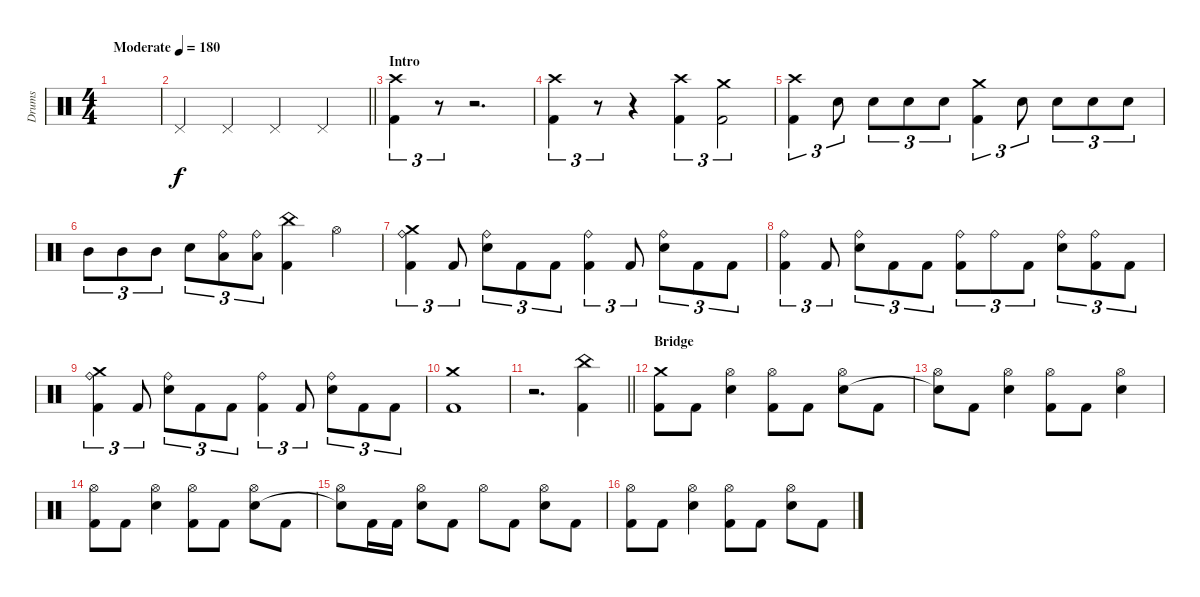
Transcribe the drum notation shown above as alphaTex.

\track ("Drums" "Drums") {instrument percussion}
\staff {score}
\articulation defaults
\ts (4 4)
\tempo (180 "Moderate")
\clef neutral
\ks c
|
\barLineRight lightlight "Pedal Hi-Hat (hit)".4 "Pedal Hi-Hat (hit)".4 "Pedal Hi-Hat (hit)".4 "Pedal Hi-Hat (hit)".4
|
\section ("" "Intro")
("Crash high (hit)" "Kick (hit) 2").4{tu (3 2)} r.8{tu (3 2)} r.2{d} |
("Crash high (hit)" "Kick (hit) 2").4{tu (3 2)} r.8{tu (3 2)} r.4 ("Crash high (hit)" "Kick (hit) 2").4{tu (3 2)} ("Crash medium (hit)" "Kick (hit) 2").2{tu (3 2)} |
("Crash high (hit)" "Kick (hit) 2").4{tu (3 2)} "Snare (hit) 2".8{tu (3 2)} "Snare (hit) 2".8{tu (3 2)} "Snare (hit) 2".8{tu (3 2)} "Snare (hit) 2".8{tu (3 2)} ("Crash medium (hit)" "Kick (hit) 2").4{tu (3 2)} "Snare (hit) 2".8{tu (3 2)} "Snare (hit) 2".8{tu (3 2)} "Snare (hit) 2".8{tu (3 2)} "Snare (hit) 2".8{tu (3 2)} |
"Mid Tom (hit)".8{tu (3 2)} "Mid Tom (hit)".8{tu (3 2)} "Mid Tom (hit)".8{tu (3 2)} "Snare (hit) 2".8{tu (3 2)} ("Ride (bell)" "Low Tom (hit)").8{tu (3 2)} ("Ride (bell)" "Low Tom (hit)").8{tu (3 2)} ("China (hit)" "Kick (hit) 2").4 "Hi-Hat (open)".4 |
("Ride (bell)" "Crash medium (hit)" "Kick (hit) 2").4{tu (3 2)} "Kick (hit) 2".8{tu (3 2)} ("Ride (bell)" "Snare (hit) 2").8{tu (3 2)} "Kick (hit) 2".8{tu (3 2)} "Kick (hit) 2".8{tu (3 2)} ("Ride (bell)" "Kick (hit) 2").4{tu (3 2)} "Kick (hit) 2".8{tu (3 2)} ("Ride (bell)" "Snare (hit) 2").8{tu (3 2)} "Kick (hit) 2".8{tu (3 2)} "Kick (hit) 2".8{tu (3 2)} |
("Ride (bell)" "Kick (hit) 2").4{tu (3 2)} "Kick (hit) 2".8{tu (3 2)} ("Ride (bell)" "Snare (hit) 2").8{tu (3 2)} "Kick (hit) 2".8{tu (3 2)} "Kick (hit) 2".8{tu (3 2)} ("Ride (bell)" "Kick (hit) 2").8{tu (3 2)} "Ride (bell)".8{tu (3 2)} "Kick (hit) 2".8{tu (3 2)} ("Ride (bell)" "Snare (hit) 2").8{tu (3 2)} ("Ride (bell)" "Kick (hit) 2").8{tu (3 2)} "Kick (hit) 2".8{tu (3 2)} |
("Ride (bell)" "Crash medium (hit)" "Kick (hit) 2").4{tu (3 2)} "Kick (hit) 2".8{tu (3 2)} ("Ride (bell)" "Snare (hit) 2").8{tu (3 2)} "Kick (hit) 2".8{tu (3 2)} "Kick (hit) 2".8{tu (3 2)} ("Ride (bell)" "Kick (hit) 2").4{tu (3 2)} "Kick (hit) 2".8{tu (3 2)} ("Ride (bell)" "Snare (hit) 2").8{tu (3 2)} "Kick (hit) 2".8{tu (3 2)} "Kick (hit) 2".8{tu (3 2)} |
("Crash medium (hit)" "Kick (hit) 2").1 |
\barLineRight lightlight
r.2{d} ("China (hit)" "Kick (hit) 2").4 |
\section ("" "Bridge")
("Crash medium (hit)" "Kick (hit) 2").8 "Kick (hit) 2".8 ("Hi-Hat (open)" "Snare (hit) 2").4 ("Hi-Hat (open)" "Kick (hit) 2").8 "Kick (hit) 2".8 ("Hi-Hat (open)" "Snare (hit) 2").8 "Kick (hit) 2".8 |
("Hi-Hat (open)" "Snare (hit)"{t}).8 "Kick (hit) 2".8 ("Hi-Hat (open)" "Snare (hit) 2").4 ("Hi-Hat (open)" "Kick (hit) 2").8 "Kick (hit) 2".8 ("Hi-Hat (open)" "Snare (hit) 2").4 |
("Hi-Hat (open)" "Kick (hit) 2").8 "Kick (hit) 2".8 ("Hi-Hat (open)" "Snare (hit) 2").4 ("Hi-Hat (open)" "Kick (hit) 2").8 "Kick (hit) 2".8 ("Hi-Hat (open)" "Snare (hit) 2").8 "Kick (hit) 2".8 |
("Hi-Hat (open)" "Snare (hit)"{t}).8 "Kick (hit) 2".16 "Kick (hit) 2".16 ("Hi-Hat (open)" "Snare (hit) 2").8 "Kick (hit) 2".8 "Hi-Hat (open)".8 "Kick (hit) 2".8 ("Hi-Hat (open)" "Snare (hit) 2").8 "Kick (hit) 2".8 |
("Hi-Hat (open)" "Kick (hit) 2").8 "Kick (hit) 2".8 ("Hi-Hat (open)" "Snare (hit) 2").4 ("Hi-Hat (open)" "Kick (hit) 2").8 "Kick (hit) 2".8 ("Hi-Hat (open)" "Snare (hit) 2").8 "Kick (hit) 2".8
